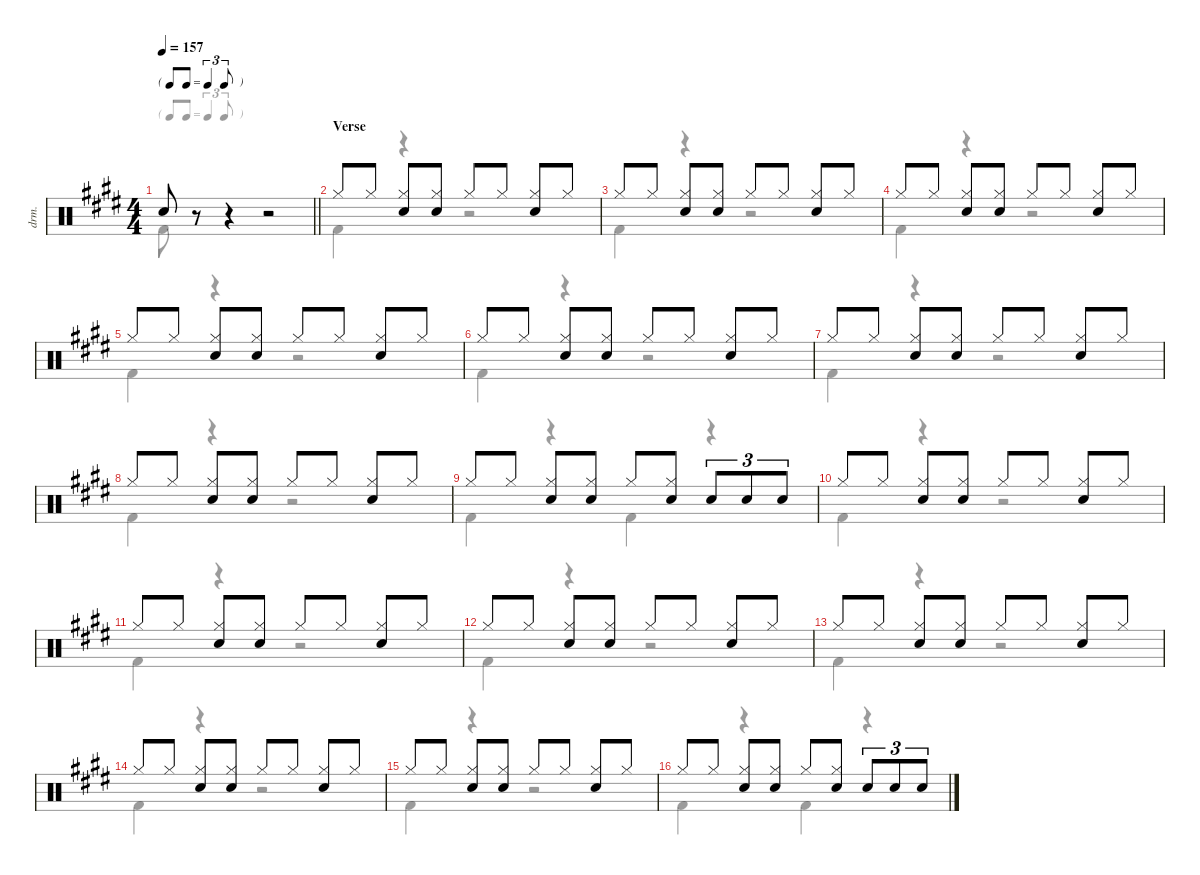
\defaultSystemsLayout 4
\hideDynamics
\bracketExtendMode nobrackets
\otherSystemsTrackNameOrientation horizontal
\track ("Drums" "drm.") {instrument percussion}
\staff {score}
\articulation defaults
\voice
\ts (4 4)
\tf triplet8th
\tempo 157
\clef neutral
\barLineRight lightlight
\ks e "Snare (hit) 2"{acc forcenatural}.8{dy f beam Up}
r.8{beam Up} r.4{beam Up} r.2{beam Up} |
\section ("" "Verse")
"Hi-Hat (closed)"{acc forcenatural}.8{beam Up} "Hi-Hat (closed)"{acc forcenatural}.8{beam Up} ("Hi-Hat (closed)"{acc forcenatural} "Snare (hit) 2"{acc forcenatural}).8{beam Up} ("Hi-Hat (closed)"{acc forcenatural} "Snare (hit) 2"{acc forcenatural}).8{beam Up} "Hi-Hat (closed)"{acc forcenatural}.8{beam Up} "Hi-Hat (closed)"{acc forcenatural}.8{beam Up} ("Hi-Hat (closed)"{acc forcenatural} "Snare (hit) 2"{acc forcenatural}).8{beam Up} "Hi-Hat (closed)"{acc forcenatural}.8{beam Up} |
"Hi-Hat (closed)"{acc forcenatural}.8{beam Up} "Hi-Hat (closed)"{acc forcenatural}.8{beam Up} ("Hi-Hat (closed)"{acc forcenatural} "Snare (hit) 2"{acc forcenatural}).8{beam Up} ("Hi-Hat (closed)"{acc forcenatural} "Snare (hit) 2"{acc forcenatural}).8{beam Up} "Hi-Hat (closed)"{acc forcenatural}.8{beam Up} "Hi-Hat (closed)"{acc forcenatural}.8{beam Up} ("Hi-Hat (closed)"{acc forcenatural} "Snare (hit) 2"{acc forcenatural}).8{beam Up} "Hi-Hat (closed)"{acc forcenatural}.8{beam Up} |
"Hi-Hat (closed)"{acc forcenatural}.8{beam Up} "Hi-Hat (closed)"{acc forcenatural}.8{beam Up} ("Hi-Hat (closed)"{acc forcenatural} "Snare (hit) 2"{acc forcenatural}).8{beam Up} ("Hi-Hat (closed)"{acc forcenatural} "Snare (hit) 2"{acc forcenatural}).8{beam Up} "Hi-Hat (closed)"{acc forcenatural}.8{beam Up} "Hi-Hat (closed)"{acc forcenatural}.8{beam Up} ("Hi-Hat (closed)"{acc forcenatural} "Snare (hit) 2"{acc forcenatural}).8{beam Up} "Hi-Hat (closed)"{acc forcenatural}.8{beam Up} |
"Hi-Hat (closed)"{acc forcenatural}.8{beam Up} "Hi-Hat (closed)"{acc forcenatural}.8{beam Up} ("Hi-Hat (closed)"{acc forcenatural} "Snare (hit) 2"{acc forcenatural}).8{beam Up} ("Hi-Hat (closed)"{acc forcenatural} "Snare (hit) 2"{acc forcenatural}).8{beam Up} "Hi-Hat (closed)"{acc forcenatural}.8{beam Up} "Hi-Hat (closed)"{acc forcenatural}.8{beam Up} ("Hi-Hat (closed)"{acc forcenatural} "Snare (hit) 2"{acc forcenatural}).8{beam Up} "Hi-Hat (closed)"{acc forcenatural}.8{beam Up} |
"Hi-Hat (closed)"{acc forcenatural}.8{beam Up} "Hi-Hat (closed)"{acc forcenatural}.8{beam Up} ("Hi-Hat (closed)"{acc forcenatural} "Snare (hit) 2"{acc forcenatural}).8{beam Up} ("Hi-Hat (closed)"{acc forcenatural} "Snare (hit) 2"{acc forcenatural}).8{beam Up} "Hi-Hat (closed)"{acc forcenatural}.8{beam Up} "Hi-Hat (closed)"{acc forcenatural}.8{beam Up} ("Hi-Hat (closed)"{acc forcenatural} "Snare (hit) 2"{acc forcenatural}).8{beam Up} "Hi-Hat (closed)"{acc forcenatural}.8{beam Up} |
"Hi-Hat (closed)"{acc forcenatural}.8{beam Up} "Hi-Hat (closed)"{acc forcenatural}.8{beam Up} ("Hi-Hat (closed)"{acc forcenatural} "Snare (hit) 2"{acc forcenatural}).8{beam Up} ("Hi-Hat (closed)"{acc forcenatural} "Snare (hit) 2"{acc forcenatural}).8{beam Up} "Hi-Hat (closed)"{acc forcenatural}.8{beam Up} "Hi-Hat (closed)"{acc forcenatural}.8{beam Up} ("Hi-Hat (closed)"{acc forcenatural} "Snare (hit) 2"{acc forcenatural}).8{beam Up} "Hi-Hat (closed)"{acc forcenatural}.8{beam Up} |
"Hi-Hat (closed)"{acc forcenatural}.8{beam Up} "Hi-Hat (closed)"{acc forcenatural}.8{beam Up} ("Hi-Hat (closed)"{acc forcenatural} "Snare (hit) 2"{acc forcenatural}).8{beam Up} ("Hi-Hat (closed)"{acc forcenatural} "Snare (hit) 2"{acc forcenatural}).8{beam Up} "Hi-Hat (closed)"{acc forcenatural}.8{beam Up} "Hi-Hat (closed)"{acc forcenatural}.8{beam Up} ("Hi-Hat (closed)"{acc forcenatural} "Snare (hit) 2"{acc forcenatural}).8{beam Up} "Hi-Hat (closed)"{acc forcenatural}.8{beam Up} |
"Hi-Hat (closed)"{acc forcenatural}.8{beam Up} "Hi-Hat (closed)"{acc forcenatural}.8{beam Up} ("Hi-Hat (closed)"{acc forcenatural} "Snare (hit) 2"{acc forcenatural}).8{beam Up} ("Hi-Hat (closed)"{acc forcenatural} "Snare (hit) 2"{acc forcenatural}).8{beam Up} "Hi-Hat (closed)"{acc forcenatural}.8{beam Up} ("Hi-Hat (closed)"{acc forcenatural} "Snare (hit) 2"{acc forcenatural}).8{beam Up} "Snare (hit) 2"{acc forcenatural}.8{tu (3 2) beam Up} "Snare (hit) 2"{acc forcenatural}.8{tu (3 2) beam Up} "Snare (hit) 2"{acc forcenatural}.8{tu (3 2) beam Up} |
"Hi-Hat (closed)"{acc forcenatural}.8{beam Up} "Hi-Hat (closed)"{acc forcenatural}.8{beam Up} ("Hi-Hat (closed)"{acc forcenatural} "Snare (hit) 2"{acc forcenatural}).8{beam Up} ("Hi-Hat (closed)"{acc forcenatural} "Snare (hit) 2"{acc forcenatural}).8{beam Up} "Hi-Hat (closed)"{acc forcenatural}.8{beam Up} "Hi-Hat (closed)"{acc forcenatural}.8{beam Up} ("Hi-Hat (closed)"{acc forcenatural} "Snare (hit) 2"{acc forcenatural}).8{beam Up} "Hi-Hat (closed)"{acc forcenatural}.8{beam Up} |
"Hi-Hat (closed)"{acc forcenatural}.8{beam Up} "Hi-Hat (closed)"{acc forcenatural}.8{beam Up} ("Hi-Hat (closed)"{acc forcenatural} "Snare (hit) 2"{acc forcenatural}).8{beam Up} ("Hi-Hat (closed)"{acc forcenatural} "Snare (hit) 2"{acc forcenatural}).8{beam Up} "Hi-Hat (closed)"{acc forcenatural}.8{beam Up} "Hi-Hat (closed)"{acc forcenatural}.8{beam Up} ("Hi-Hat (closed)"{acc forcenatural} "Snare (hit) 2"{acc forcenatural}).8{beam Up} "Hi-Hat (closed)"{acc forcenatural}.8{beam Up} |
"Hi-Hat (closed)"{acc forcenatural}.8{beam Up} "Hi-Hat (closed)"{acc forcenatural}.8{beam Up} ("Hi-Hat (closed)"{acc forcenatural} "Snare (hit) 2"{acc forcenatural}).8{beam Up} ("Hi-Hat (closed)"{acc forcenatural} "Snare (hit) 2"{acc forcenatural}).8{beam Up} "Hi-Hat (closed)"{acc forcenatural}.8{beam Up} "Hi-Hat (closed)"{acc forcenatural}.8{beam Up} ("Hi-Hat (closed)"{acc forcenatural} "Snare (hit) 2"{acc forcenatural}).8{beam Up} "Hi-Hat (closed)"{acc forcenatural}.8{beam Up} |
"Hi-Hat (closed)"{acc forcenatural}.8{beam Up} "Hi-Hat (closed)"{acc forcenatural}.8{beam Up} ("Hi-Hat (closed)"{acc forcenatural} "Snare (hit) 2"{acc forcenatural}).8{beam Up} ("Hi-Hat (closed)"{acc forcenatural} "Snare (hit) 2"{acc forcenatural}).8{beam Up} "Hi-Hat (closed)"{acc forcenatural}.8{beam Up} "Hi-Hat (closed)"{acc forcenatural}.8{beam Up} ("Hi-Hat (closed)"{acc forcenatural} "Snare (hit) 2"{acc forcenatural}).8{beam Up} "Hi-Hat (closed)"{acc forcenatural}.8{beam Up} |
"Hi-Hat (closed)"{acc forcenatural}.8{beam Up} "Hi-Hat (closed)"{acc forcenatural}.8{beam Up} ("Hi-Hat (closed)"{acc forcenatural} "Snare (hit) 2"{acc forcenatural}).8{beam Up} ("Hi-Hat (closed)"{acc forcenatural} "Snare (hit) 2"{acc forcenatural}).8{beam Up} "Hi-Hat (closed)"{acc forcenatural}.8{beam Up} "Hi-Hat (closed)"{acc forcenatural}.8{beam Up} ("Hi-Hat (closed)"{acc forcenatural} "Snare (hit) 2"{acc forcenatural}).8{beam Up} "Hi-Hat (closed)"{acc forcenatural}.8{beam Up} |
"Hi-Hat (closed)"{acc forcenatural}.8{beam Up} "Hi-Hat (closed)"{acc forcenatural}.8{beam Up} ("Hi-Hat (closed)"{acc forcenatural} "Snare (hit) 2"{acc forcenatural}).8{beam Up} ("Hi-Hat (closed)"{acc forcenatural} "Snare (hit) 2"{acc forcenatural}).8{beam Up} "Hi-Hat (closed)"{acc forcenatural}.8{beam Up} "Hi-Hat (closed)"{acc forcenatural}.8{beam Up} ("Hi-Hat (closed)"{acc forcenatural} "Snare (hit) 2"{acc forcenatural}).8{beam Up} "Hi-Hat (closed)"{acc forcenatural}.8{beam Up} |
"Hi-Hat (closed)"{acc forcenatural}.8{beam Up} "Hi-Hat (closed)"{acc forcenatural}.8{beam Up} ("Hi-Hat (closed)"{acc forcenatural} "Snare (hit) 2"{acc forcenatural}).8{beam Up} ("Hi-Hat (closed)"{acc forcenatural} "Snare (hit) 2"{acc forcenatural}).8{beam Up} "Hi-Hat (closed)"{acc forcenatural}.8{beam Up} ("Hi-Hat (closed)"{acc forcenatural} "Snare (hit) 2"{acc forcenatural}).8{beam Up} "Snare (hit) 2"{acc forcenatural}.8{tu (3 2) beam Up} "Snare (hit) 2"{acc forcenatural}.8{tu (3 2) beam Up} "Snare (hit) 2"{acc forcenatural}.8{tu (3 2) beam Up}
\voice
\clef neutral
\ottava regular
\simile none
\barLineRight lightlight
\ks e "Kick (hit) 2"{acc forcenatural}.8{dy f beam Down}
r.8{beam Down} r.4{beam Down} r.2{beam Down} |
"Kick (hit) 2"{acc forcenatural}.4{beam Down} r.4{beam Down} r.2{beam Down} |
"Kick (hit) 2"{acc forcenatural}.4{beam Down} r.4{beam Down} r.2{beam Down} |
"Kick (hit) 2"{acc forcenatural}.4{beam Down} r.4{beam Down} r.2{beam Down} |
"Kick (hit) 2"{acc forcenatural}.4{beam Down} r.4{beam Down} r.2{beam Down} |
"Kick (hit) 2"{acc forcenatural}.4{beam Down} r.4{beam Down} r.2{beam Down} |
"Kick (hit) 2"{acc forcenatural}.4{beam Down} r.4{beam Down} r.2{beam Down} |
"Kick (hit) 2"{acc forcenatural}.4{beam Down} r.4{beam Down} r.2{beam Down} |
"Kick (hit) 2"{acc forcenatural}.4{beam Down} r.4{beam Down} "Kick (hit) 2"{acc forcenatural}.4{beam Down} r.4{beam Down} |
"Kick (hit) 2"{acc forcenatural}.4{beam Down} r.4{beam Down} r.2{beam Down} |
"Kick (hit) 2"{acc forcenatural}.4{beam Down} r.4{beam Down} r.2{beam Down} |
"Kick (hit) 2"{acc forcenatural}.4{beam Down} r.4{beam Down} r.2{beam Down} |
"Kick (hit) 2"{acc forcenatural}.4{beam Down} r.4{beam Down} r.2{beam Down} |
"Kick (hit) 2"{acc forcenatural}.4{beam Down} r.4{beam Down} r.2{beam Down} |
"Kick (hit) 2"{acc forcenatural}.4{beam Down} r.4{beam Down} r.2{beam Down} |
"Kick (hit) 2"{acc forcenatural}.4{beam Down} r.4{beam Down} "Kick (hit) 2"{acc forcenatural}.4{beam Down} r.4{beam Down}
